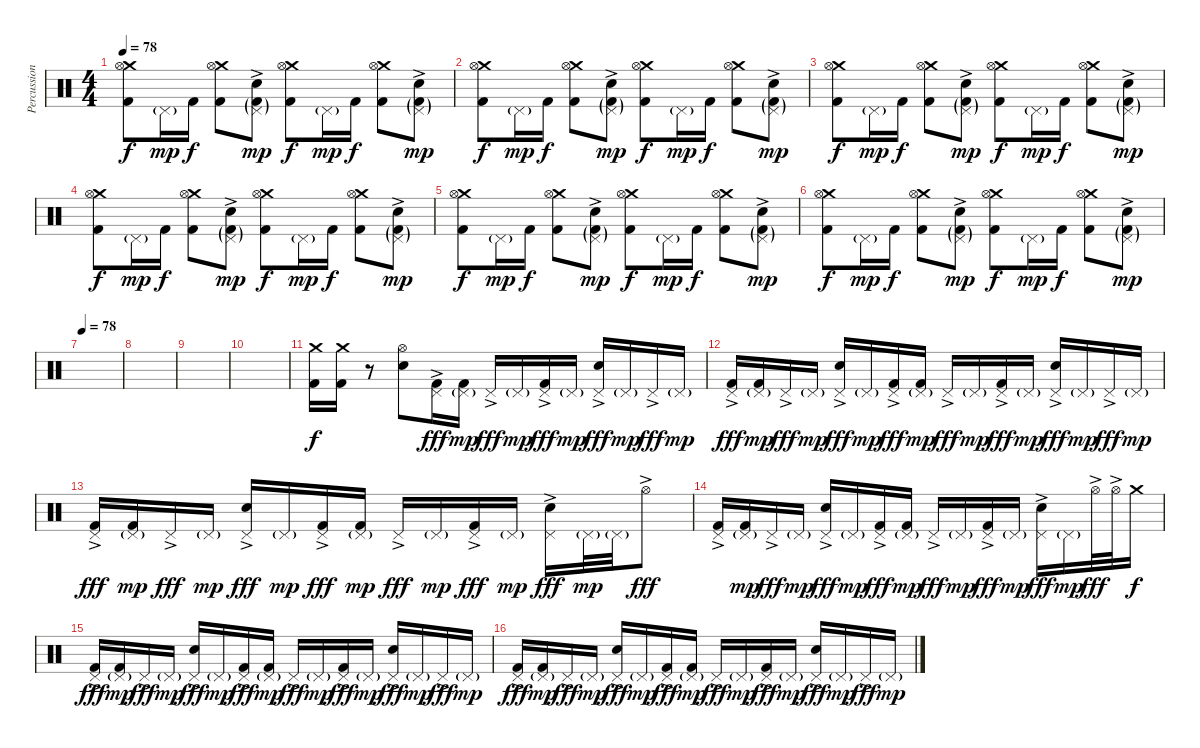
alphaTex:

\track ("Percussions" "Percussion") {instrument percussion}
\staff {score}
\articulation defaults
\ts (4 4)
\tempo 78
\clef neutral
\ks c
("Crash medium (hit)" "Hi-Hat (open)" "Kick (hit) 2").8{dy f} "Pedal Hi-Hat (hit)"{g}.16{dy mp} "Kick (hit) 2".16{dy f} ("Crash medium (hit)" "Hi-Hat (open)" "Kick (hit) 2").8 ("Pedal Hi-Hat (hit)"{g} "Electric Snare (hit)"{ac} "Kick (hit) 2"{g}).8{dy mp} ("Crash medium (hit)" "Hi-Hat (open)" "Kick (hit) 2").8{dy f} "Pedal Hi-Hat (hit)"{g}.16{dy mp} "Kick (hit) 2".16{dy f} ("Crash medium (hit)" "Hi-Hat (open)" "Kick (hit) 2").8 ("Pedal Hi-Hat (hit)"{g} "Electric Snare (hit)"{ac} "Kick (hit) 2"{g}).8{dy mp} |
("Crash medium (hit)" "Hi-Hat (open)" "Kick (hit) 2").8{dy f} "Pedal Hi-Hat (hit)"{g}.16{dy mp} "Kick (hit) 2".16{dy f} ("Crash medium (hit)" "Hi-Hat (open)" "Kick (hit) 2").8 ("Pedal Hi-Hat (hit)"{g} "Electric Snare (hit)"{ac} "Kick (hit) 2"{g}).8{dy mp} ("Crash medium (hit)" "Hi-Hat (open)" "Kick (hit) 2").8{dy f} "Pedal Hi-Hat (hit)"{g}.16{dy mp} "Kick (hit) 2".16{dy f} ("Crash medium (hit)" "Hi-Hat (open)" "Kick (hit) 2").8 ("Pedal Hi-Hat (hit)"{g} "Electric Snare (hit)"{ac} "Kick (hit) 2"{g}).8{dy mp} |
("Crash medium (hit)" "Hi-Hat (open)" "Kick (hit) 2").8{dy f} "Pedal Hi-Hat (hit)"{g}.16{dy mp} "Kick (hit) 2".16{dy f} ("Crash medium (hit)" "Hi-Hat (open)" "Kick (hit) 2").8 ("Pedal Hi-Hat (hit)"{g} "Electric Snare (hit)"{ac} "Kick (hit) 2"{g}).8{dy mp} ("Crash medium (hit)" "Hi-Hat (open)" "Kick (hit) 2").8{dy f} "Pedal Hi-Hat (hit)"{g}.16{dy mp} "Kick (hit) 2".16{dy f} ("Crash medium (hit)" "Hi-Hat (open)" "Kick (hit) 2").8 ("Pedal Hi-Hat (hit)"{g} "Electric Snare (hit)"{ac} "Kick (hit) 2"{g}).8{dy mp} |
("Crash medium (hit)" "Hi-Hat (open)" "Kick (hit) 2").8{dy f} "Pedal Hi-Hat (hit)"{g}.16{dy mp} "Kick (hit) 2".16{dy f} ("Crash medium (hit)" "Hi-Hat (open)" "Kick (hit) 2").8 ("Pedal Hi-Hat (hit)"{g} "Electric Snare (hit)"{ac} "Kick (hit) 2"{g}).8{dy mp} ("Crash medium (hit)" "Hi-Hat (open)" "Kick (hit) 2").8{dy f} "Pedal Hi-Hat (hit)"{g}.16{dy mp} "Kick (hit) 2".16{dy f} ("Crash medium (hit)" "Hi-Hat (open)" "Kick (hit) 2").8 ("Pedal Hi-Hat (hit)"{g} "Electric Snare (hit)"{ac} "Kick (hit) 2"{g}).8{dy mp} |
("Crash medium (hit)" "Hi-Hat (open)" "Kick (hit) 2").8{dy f} "Pedal Hi-Hat (hit)"{g}.16{dy mp} "Kick (hit) 2".16{dy f} ("Crash medium (hit)" "Hi-Hat (open)" "Kick (hit) 2").8 ("Pedal Hi-Hat (hit)"{g} "Electric Snare (hit)"{ac} "Kick (hit) 2"{g}).8{dy mp} ("Crash medium (hit)" "Hi-Hat (open)" "Kick (hit) 2").8{dy f} "Pedal Hi-Hat (hit)"{g}.16{dy mp} "Kick (hit) 2".16{dy f} ("Crash medium (hit)" "Hi-Hat (open)" "Kick (hit) 2").8 ("Pedal Hi-Hat (hit)"{g} "Electric Snare (hit)"{ac} "Kick (hit) 2"{g}).8{dy mp} |
("Crash medium (hit)" "Hi-Hat (open)" "Kick (hit) 2").8{dy f} "Pedal Hi-Hat (hit)"{g}.16{dy mp} "Kick (hit) 2".16{dy f} ("Crash medium (hit)" "Hi-Hat (open)" "Kick (hit) 2").8 ("Pedal Hi-Hat (hit)"{g} "Electric Snare (hit)"{ac} "Kick (hit) 2"{g}).8{dy mp} ("Crash medium (hit)" "Hi-Hat (open)" "Kick (hit) 2").8{dy f} "Pedal Hi-Hat (hit)"{g}.16{dy mp} "Kick (hit) 2".16{dy f} ("Crash medium (hit)" "Hi-Hat (open)" "Kick (hit) 2").8 ("Pedal Hi-Hat (hit)"{g} "Electric Snare (hit)"{ac} "Kick (hit) 2"{g}).8{dy mp} |
\tempo 78
|
|
|
|
("Crash medium (hit)" "Kick (hit) 2").16{dy f} ("Crash medium (hit)" "Kick (hit) 2").16 r.8 ("Hi-Hat (open)" "Electric Snare (hit)").8 ("Pedal Hi-Hat (hit)"{ac} "Kick (hit) 2").16{dy fff} ("Pedal Hi-Hat (hit)"{g} "Kick (hit) 2").16{dy mp} "Pedal Hi-Hat (hit)"{ac}.16{dy fff} "Pedal Hi-Hat (hit)"{g}.16{dy mp} ("Pedal Hi-Hat (hit)"{ac} "Kick (hit) 2").16{dy fff} "Pedal Hi-Hat (hit)"{g}.16{dy mp} ("Pedal Hi-Hat (hit)"{ac} "Electric Snare (hit)").16{dy fff} "Pedal Hi-Hat (hit)"{g}.16{dy mp} "Pedal Hi-Hat (hit)"{ac}.16{dy fff} "Pedal Hi-Hat (hit)"{g}.16{dy mp} |
("Pedal Hi-Hat (hit)"{ac} "Kick (hit) 2").16{dy fff} ("Pedal Hi-Hat (hit)"{g} "Kick (hit) 2").16{dy mp} "Pedal Hi-Hat (hit)"{ac}.16{dy fff} "Pedal Hi-Hat (hit)"{g}.16{dy mp} ("Pedal Hi-Hat (hit)"{ac} "Electric Snare (hit)").16{dy fff} "Pedal Hi-Hat (hit)"{g}.16{dy mp} ("Pedal Hi-Hat (hit)"{ac} "Kick (hit) 2").16{dy fff} ("Pedal Hi-Hat (hit)"{g} "Kick (hit) 2").16{dy mp} "Pedal Hi-Hat (hit)"{ac}.16{dy fff} "Pedal Hi-Hat (hit)"{g}.16{dy mp} ("Pedal Hi-Hat (hit)"{ac} "Kick (hit) 2").16{dy fff} "Pedal Hi-Hat (hit)"{g}.16{dy mp} ("Pedal Hi-Hat (hit)"{ac} "Electric Snare (hit)").16{dy fff} "Pedal Hi-Hat (hit)"{g}.16{dy mp} "Pedal Hi-Hat (hit)"{ac}.16{dy fff} "Pedal Hi-Hat (hit)"{g}.16{dy mp} |
("Pedal Hi-Hat (hit)"{ac} "Kick (hit) 2").16{dy fff} ("Pedal Hi-Hat (hit)"{g} "Kick (hit) 2").16{dy mp} "Pedal Hi-Hat (hit)"{ac}.16{dy fff} "Pedal Hi-Hat (hit)"{g}.16{dy mp} ("Pedal Hi-Hat (hit)"{ac} "Electric Snare (hit)").16{dy fff} "Pedal Hi-Hat (hit)"{g}.16{dy mp} ("Pedal Hi-Hat (hit)"{ac} "Kick (hit) 2").16{dy fff} ("Pedal Hi-Hat (hit)"{g} "Kick (hit) 2").16{dy mp} "Pedal Hi-Hat (hit)"{ac}.16{dy fff} "Pedal Hi-Hat (hit)"{g}.16{dy mp} ("Pedal Hi-Hat (hit)"{ac} "Kick (hit) 2").16{dy fff} "Pedal Hi-Hat (hit)"{g}.16{dy mp} ("Pedal Hi-Hat (hit)"{ac} "Electric Snare (hit)").16{dy fff} "Pedal Hi-Hat (hit)"{g}.32{dy mp} "Pedal Hi-Hat (hit)"{g}.32 "Hi-Hat (open)"{ac}.8{dy fff} |
("Pedal Hi-Hat (hit)"{ac} "Kick (hit) 2").16 ("Pedal Hi-Hat (hit)"{g} "Kick (hit) 2").16{dy mp} "Pedal Hi-Hat (hit)"{ac}.16{dy fff} "Pedal Hi-Hat (hit)"{g}.16{dy mp} ("Pedal Hi-Hat (hit)"{ac} "Electric Snare (hit)").16{dy fff} "Pedal Hi-Hat (hit)"{g}.16{dy mp} ("Pedal Hi-Hat (hit)"{ac} "Kick (hit) 2").16{dy fff} ("Pedal Hi-Hat (hit)"{g} "Kick (hit) 2").16{dy mp} "Pedal Hi-Hat (hit)"{ac}.16{dy fff} "Pedal Hi-Hat (hit)"{g}.16{dy mp} ("Pedal Hi-Hat (hit)"{ac} "Kick (hit) 2").16{dy fff} "Pedal Hi-Hat (hit)"{g}.16{dy mp} ("Pedal Hi-Hat (hit)"{ac} "Electric Snare (hit)").16{dy fff} "Pedal Hi-Hat (hit)"{g}.16{dy mp} "Hi-Hat (open)"{ac}.32{dy fff} "Hi-Hat (open)"{ac}.32 "Crash medium (hit)".16{dy f} |
("Pedal Hi-Hat (hit)"{ac} "Kick (hit) 2").16{dy fff} ("Pedal Hi-Hat (hit)"{g} "Kick (hit) 2").16{dy mp} "Pedal Hi-Hat (hit)"{ac}.16{dy fff} "Pedal Hi-Hat (hit)"{g}.16{dy mp} ("Pedal Hi-Hat (hit)"{ac} "Electric Snare (hit)").16{dy fff} "Pedal Hi-Hat (hit)"{g}.16{dy mp} ("Pedal Hi-Hat (hit)"{ac} "Kick (hit) 2").16{dy fff} ("Pedal Hi-Hat (hit)"{g} "Kick (hit) 2").16{dy mp} "Pedal Hi-Hat (hit)"{ac}.16{dy fff} "Pedal Hi-Hat (hit)"{g}.16{dy mp} ("Pedal Hi-Hat (hit)"{ac} "Kick (hit) 2").16{dy fff} "Pedal Hi-Hat (hit)"{g}.16{dy mp} ("Pedal Hi-Hat (hit)"{ac} "Electric Snare (hit)").16{dy fff} "Pedal Hi-Hat (hit)"{g}.16{dy mp} "Pedal Hi-Hat (hit)"{ac}.16{dy fff} "Pedal Hi-Hat (hit)"{g}.16{dy mp} |
("Pedal Hi-Hat (hit)"{ac} "Kick (hit) 2").16{dy fff} ("Pedal Hi-Hat (hit)"{g} "Kick (hit) 2").16{dy mp} "Pedal Hi-Hat (hit)"{ac}.16{dy fff} "Pedal Hi-Hat (hit)"{g}.16{dy mp} ("Pedal Hi-Hat (hit)"{ac} "Electric Snare (hit)").16{dy fff} "Pedal Hi-Hat (hit)"{g}.16{dy mp} ("Pedal Hi-Hat (hit)"{ac} "Kick (hit) 2").16{dy fff} ("Pedal Hi-Hat (hit)"{g} "Kick (hit) 2").16{dy mp} "Pedal Hi-Hat (hit)"{ac}.16{dy fff} "Pedal Hi-Hat (hit)"{g}.16{dy mp} ("Pedal Hi-Hat (hit)"{ac} "Kick (hit) 2").16{dy fff} "Pedal Hi-Hat (hit)"{g}.16{dy mp} ("Pedal Hi-Hat (hit)"{ac} "Electric Snare (hit)").16{dy fff} "Pedal Hi-Hat (hit)"{g}.16{dy mp} "Pedal Hi-Hat (hit)"{ac}.16{dy fff} "Pedal Hi-Hat (hit)"{g}.16{dy mp}
